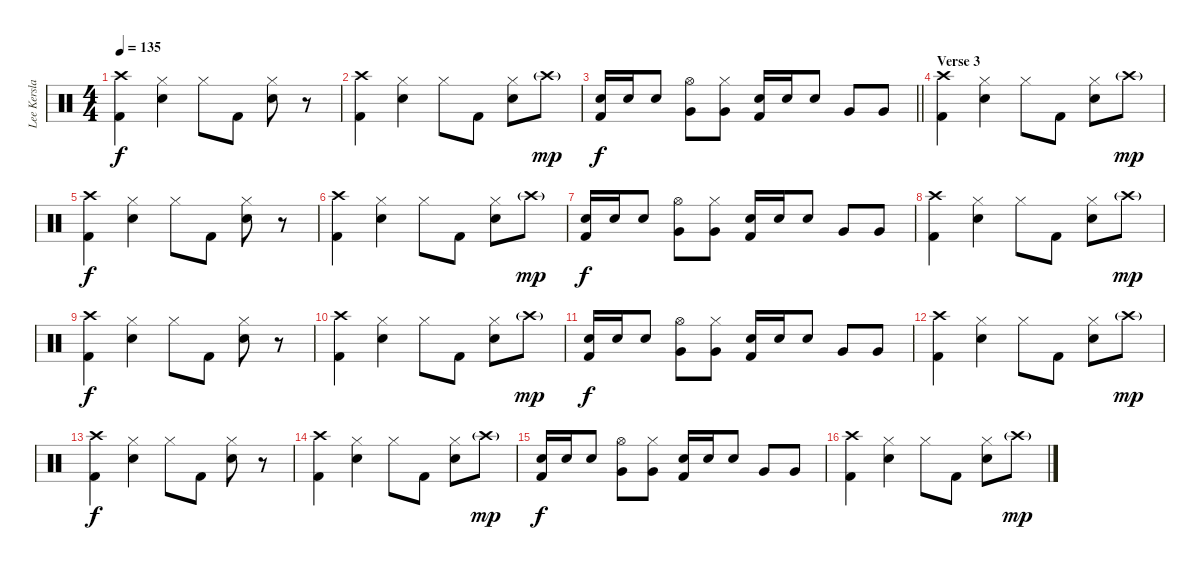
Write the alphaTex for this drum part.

\track ("Lee Kerslake" "Lee Kersla") {instrument percussion}
\staff {score}
\articulation defaults
\ts (4 4)
\tempo 135
\clef neutral
\ks c
("Crash high (hit)" "Kick (hit) 2").4{dy f} ("Hi-Hat (closed)" "Electric Snare (hit)").4 "Hi-Hat (closed)".8 "Kick (hit) 2".8 ("Hi-Hat (closed)" "Electric Snare (hit)").8 r.8 |
("Crash high (hit)" "Kick (hit) 2").4 ("Hi-Hat (closed)" "Electric Snare (hit)").4 "Hi-Hat (closed)".8 "Kick (hit) 2".8 ("Hi-Hat (closed)" "Electric Snare (hit)").8 "Crash high (hit)"{g}.8{dy mp} |
\barLineRight lightlight
("Electric Snare (hit)" "Kick (hit) 2").16{dy f} "Electric Snare (hit)".16 "Electric Snare (hit)".8 ("Very Low Tom (hit)" "Hi-Hat (open)").8 ("Very Low Tom (hit)" "Hi-Hat (closed)").8 ("Electric Snare (hit)" "Kick (hit) 2").16 "Electric Snare (hit)".16 "Electric Snare (hit)".8 "Very Low Tom (hit)".8 "Very Low Tom (hit)".8 |
\section ("" "Verse 3")
("Crash high (hit)" "Kick (hit) 2").4 ("Hi-Hat (closed)" "Electric Snare (hit)").4 "Hi-Hat (closed)".8 "Kick (hit) 2".8 ("Hi-Hat (closed)" "Electric Snare (hit)").8 "Crash high (hit)"{g}.8{dy mp} |
("Crash high (hit)" "Kick (hit) 2").4{dy f} ("Hi-Hat (closed)" "Electric Snare (hit)").4 "Hi-Hat (closed)".8 "Kick (hit) 2".8 ("Hi-Hat (closed)" "Electric Snare (hit)").8 r.8 |
("Crash high (hit)" "Kick (hit) 2").4 ("Hi-Hat (closed)" "Electric Snare (hit)").4 "Hi-Hat (closed)".8 "Kick (hit) 2".8 ("Hi-Hat (closed)" "Electric Snare (hit)").8 "Crash high (hit)"{g}.8{dy mp} |
("Electric Snare (hit)" "Kick (hit) 2").16{dy f} "Electric Snare (hit)".16 "Electric Snare (hit)".8 ("Very Low Tom (hit)" "Hi-Hat (open)").8 ("Very Low Tom (hit)" "Hi-Hat (closed)").8 ("Electric Snare (hit)" "Kick (hit) 2").16 "Electric Snare (hit)".16 "Electric Snare (hit)".8 "Very Low Tom (hit)".8 "Very Low Tom (hit)".8 |
("Crash high (hit)" "Kick (hit) 2").4 ("Hi-Hat (closed)" "Electric Snare (hit)").4 "Hi-Hat (closed)".8 "Kick (hit) 2".8 ("Hi-Hat (closed)" "Electric Snare (hit)").8 "Crash high (hit)"{g}.8{dy mp} |
("Crash high (hit)" "Kick (hit) 2").4{dy f} ("Hi-Hat (closed)" "Electric Snare (hit)").4 "Hi-Hat (closed)".8 "Kick (hit) 2".8 ("Hi-Hat (closed)" "Electric Snare (hit)").8 r.8 |
("Crash high (hit)" "Kick (hit) 2").4 ("Hi-Hat (closed)" "Electric Snare (hit)").4 "Hi-Hat (closed)".8 "Kick (hit) 2".8 ("Hi-Hat (closed)" "Electric Snare (hit)").8 "Crash high (hit)"{g}.8{dy mp} |
("Electric Snare (hit)" "Kick (hit) 2").16{dy f} "Electric Snare (hit)".16 "Electric Snare (hit)".8 ("Very Low Tom (hit)" "Hi-Hat (open)").8 ("Very Low Tom (hit)" "Hi-Hat (closed)").8 ("Electric Snare (hit)" "Kick (hit) 2").16 "Electric Snare (hit)".16 "Electric Snare (hit)".8 "Very Low Tom (hit)".8 "Very Low Tom (hit)".8 |
("Crash high (hit)" "Kick (hit) 2").4 ("Hi-Hat (closed)" "Electric Snare (hit)").4 "Hi-Hat (closed)".8 "Kick (hit) 2".8 ("Hi-Hat (closed)" "Electric Snare (hit)").8 "Crash high (hit)"{g}.8{dy mp} |
("Crash high (hit)" "Kick (hit) 2").4{dy f} ("Hi-Hat (closed)" "Electric Snare (hit)").4 "Hi-Hat (closed)".8 "Kick (hit) 2".8 ("Hi-Hat (closed)" "Electric Snare (hit)").8 r.8 |
("Crash high (hit)" "Kick (hit) 2").4 ("Hi-Hat (closed)" "Electric Snare (hit)").4 "Hi-Hat (closed)".8 "Kick (hit) 2".8 ("Hi-Hat (closed)" "Electric Snare (hit)").8 "Crash high (hit)"{g}.8{dy mp} |
("Electric Snare (hit)" "Kick (hit) 2").16{dy f} "Electric Snare (hit)".16 "Electric Snare (hit)".8 ("Very Low Tom (hit)" "Hi-Hat (open)").8 ("Very Low Tom (hit)" "Hi-Hat (closed)").8 ("Electric Snare (hit)" "Kick (hit) 2").16 "Electric Snare (hit)".16 "Electric Snare (hit)".8 "Very Low Tom (hit)".8 "Very Low Tom (hit)".8 |
("Crash high (hit)" "Kick (hit) 2").4 ("Hi-Hat (closed)" "Electric Snare (hit)").4 "Hi-Hat (closed)".8 "Kick (hit) 2".8 ("Hi-Hat (closed)" "Electric Snare (hit)").8 "Crash high (hit)"{g}.8{dy mp}
